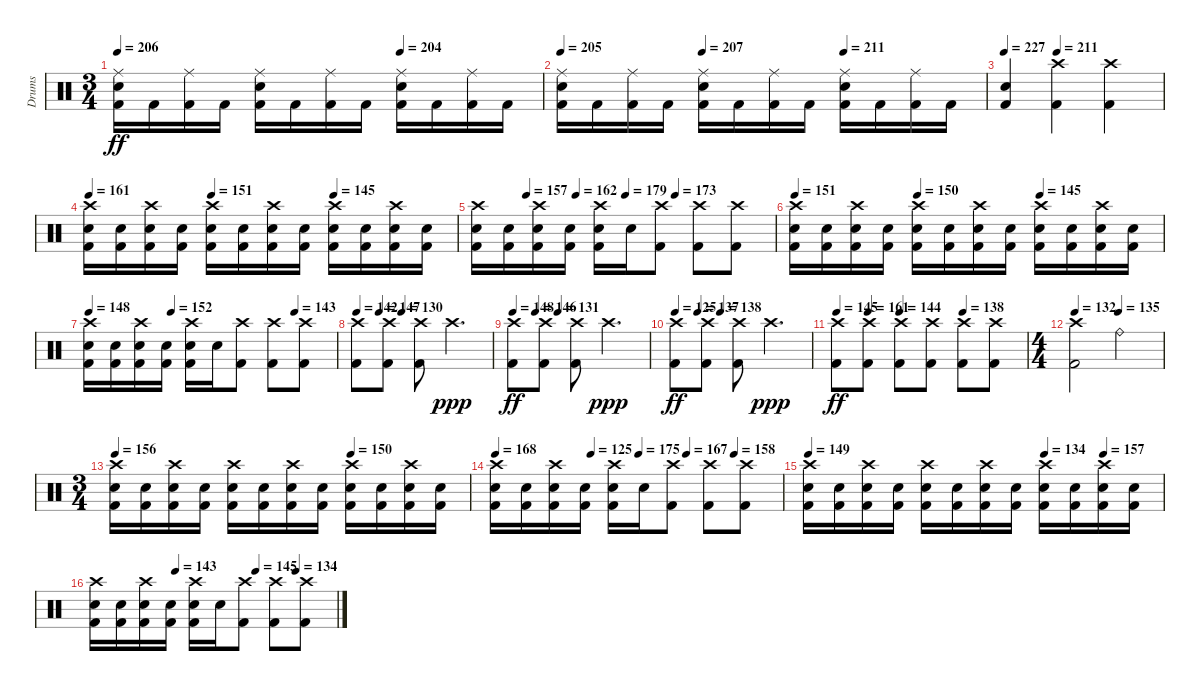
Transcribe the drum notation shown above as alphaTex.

\track ("Drums" "Drums") {instrument percussion}
\staff {score}
\articulation defaults
\ts (3 4)
\tempo 206
\tempo (204 0.6666666666666666)
\clef neutral
\ks c
("Kick (hit) 2" "Snare (hit) 2" "Ride (middle)").16{dy ff} "Kick (hit) 2".16 ("Kick (hit) 2" "Ride (middle)").16 "Kick (hit) 2".16 ("Kick (hit) 2" "Snare (hit) 2" "Ride (middle)").16 "Kick (hit) 2".16 ("Kick (hit) 2" "Ride (middle)").16 "Kick (hit) 2".16 ("Kick (hit) 2" "Snare (hit) 2" "Ride (middle)").16 "Kick (hit) 2".16 ("Kick (hit) 2" "Ride (middle)").16 "Kick (hit) 2".16 |
\tempo 205
\tempo (207 0.3333333333333333)
\tempo (211 0.6666666666666666)
("Kick (hit) 2" "Snare (hit) 2" "Ride (middle)").16 "Kick (hit) 2".16 ("Kick (hit) 2" "Ride (middle)").16 "Kick (hit) 2".16 ("Kick (hit) 2" "Snare (hit) 2" "Ride (middle)").16 "Kick (hit) 2".16 ("Kick (hit) 2" "Ride (middle)").16 "Kick (hit) 2".16 ("Kick (hit) 2" "Snare (hit) 2" "Ride (middle)").16 "Kick (hit) 2".16 ("Kick (hit) 2" "Ride (middle)").16 "Kick (hit) 2".16 |
\tempo 227
\tempo (211 0.3333333333333333)
("Kick (hit) 2" "Snare (hit) 2").4 ("Kick (hit) 2" "Crash high (hit)").4 ("Kick (hit) 2" "Crash high (hit)").4 |
\tempo 161
\tempo (151 0.3333333333333333)
\tempo (145 0.6666666666666666)
("Kick (hit) 2" "Snare (hit) 2" "Crash high (hit)").16 ("Kick (hit) 2" "Snare (hit) 2").16 ("Kick (hit) 2" "Snare (hit) 2" "Crash high (hit)").16 ("Kick (hit) 2" "Snare (hit) 2").16 ("Kick (hit) 2" "Snare (hit) 2" "Crash high (hit)").16 ("Kick (hit) 2" "Snare (hit) 2").16 ("Kick (hit) 2" "Snare (hit) 2" "Crash high (hit)").16 ("Kick (hit) 2" "Snare (hit) 2").16 ("Kick (hit) 2" "Snare (hit) 2" "Crash high (hit)").16 ("Kick (hit) 2" "Snare (hit) 2").16 ("Kick (hit) 2" "Snare (hit) 2" "Crash high (hit)").16 ("Kick (hit) 2" "Snare (hit) 2").16 |
\tempo (157 0.16666666666666666)
\tempo (162 0.3333333333333333)
\tempo (179 0.5)
\tempo (173 0.6666666666666666)
("Kick (hit) 2" "Snare (hit) 2" "Crash high (hit)").16 ("Kick (hit) 2" "Snare (hit) 2").16 ("Kick (hit) 2" "Snare (hit) 2" "Crash high (hit)").16 ("Kick (hit) 2" "Snare (hit) 2").16 ("Kick (hit) 2" "Snare (hit) 2" "Crash high (hit)").16 "Snare (hit) 2".16 ("Kick (hit) 2" "Crash high (hit)").8 ("Kick (hit) 2" "Crash high (hit)").8 ("Kick (hit) 2" "Crash high (hit)").8 |
\tempo 151
\tempo (150 0.3333333333333333)
\tempo (145 0.6666666666666666)
("Kick (hit) 2" "Snare (hit) 2" "Crash high (hit)").16 ("Kick (hit) 2" "Snare (hit) 2").16 ("Kick (hit) 2" "Snare (hit) 2" "Crash high (hit)").16 ("Kick (hit) 2" "Snare (hit) 2").16 ("Kick (hit) 2" "Snare (hit) 2" "Crash high (hit)").16 ("Kick (hit) 2" "Snare (hit) 2").16 ("Kick (hit) 2" "Snare (hit) 2" "Crash high (hit)").16 ("Kick (hit) 2" "Snare (hit) 2").16 ("Kick (hit) 2" "Snare (hit) 2" "Crash high (hit)").16 ("Kick (hit) 2" "Snare (hit) 2").16 ("Kick (hit) 2" "Snare (hit) 2" "Crash high (hit)").16 ("Kick (hit) 2" "Snare (hit) 2").16 |
\tempo 148
\tempo (152 0.3333333333333333)
\tempo (143 0.8333333333333334)
("Kick (hit) 2" "Snare (hit) 2" "Crash high (hit)").16 ("Kick (hit) 2" "Snare (hit) 2").16 ("Kick (hit) 2" "Snare (hit) 2" "Crash high (hit)").16 ("Kick (hit) 2" "Snare (hit) 2").16 ("Kick (hit) 2" "Snare (hit) 2" "Crash high (hit)").16 "Snare (hit) 2".16 ("Kick (hit) 2" "Crash high (hit)").8 ("Kick (hit) 2" "Crash high (hit)").8 ("Kick (hit) 2" "Crash high (hit)").8 |
\tempo 142
\tempo (147 0.16666666666666666)
\tempo (130 0.3333333333333333)
("Kick (hit) 2" "Crash high (hit)").8 ("Kick (hit) 2" "Crash high (hit)").8 ("Kick (hit) 2" "Crash high (hit)").8 "Crash high (hit)".4{d dy ppp} |
\tempo 148
\tempo (146 0.16666666666666666)
\tempo (131 0.3333333333333333)
("Kick (hit) 2" "Crash high (hit)").8{dy ff} ("Kick (hit) 2" "Crash high (hit)").8 ("Kick (hit) 2" "Crash high (hit)").8 "Crash high (hit)".4{d dy ppp} |
\tempo 125
\tempo (137 0.16666666666666666)
\tempo (138 0.3333333333333333)
("Kick (hit) 2" "Crash high (hit)").8{dy ff} ("Kick (hit) 2" "Crash high (hit)").8 ("Kick (hit) 2" "Crash high (hit)").8 "Crash high (hit)".4{d dy ppp} |
\tempo 145
\tempo (161 0.16666666666666666)
\tempo (144 0.3333333333333333)
\tempo (138 0.6666666666666666)
("Kick (hit) 2" "Crash high (hit)").8{dy ff} ("Kick (hit) 2" "Crash high (hit)").8 ("Kick (hit) 2" "Crash high (hit)").8 ("Kick (hit) 2" "Crash high (hit)").8 ("Kick (hit) 2" "Crash high (hit)").8 ("Kick (hit) 2" "Crash high (hit)").8 |
\ts (4 4)
\tempo 132
\tempo (135 0.5)
("Kick (hit) 2" "Crash high (hit)").2 "Ride (bell)".2 |
\ts (3 4)
\tempo 156
\tempo (150 0.6666666666666666)
("Kick (hit) 2" "Snare (hit) 2" "Crash high (hit)").16 ("Kick (hit) 2" "Snare (hit) 2").16 ("Kick (hit) 2" "Snare (hit) 2" "Crash high (hit)").16 ("Kick (hit) 2" "Snare (hit) 2").16 ("Kick (hit) 2" "Snare (hit) 2" "Crash high (hit)").16 ("Kick (hit) 2" "Snare (hit) 2").16 ("Kick (hit) 2" "Snare (hit) 2" "Crash high (hit)").16 ("Kick (hit) 2" "Snare (hit) 2").16 ("Kick (hit) 2" "Snare (hit) 2" "Crash high (hit)").16 ("Kick (hit) 2" "Snare (hit) 2").16 ("Kick (hit) 2" "Snare (hit) 2" "Crash high (hit)").16 ("Kick (hit) 2" "Snare (hit) 2").16 |
\tempo 168
\tempo (125 0.3333333333333333)
\tempo (175 0.5)
\tempo (167 0.6666666666666666)
\tempo (158 0.8333333333333334)
("Kick (hit) 2" "Snare (hit) 2" "Crash high (hit)").16 ("Kick (hit) 2" "Snare (hit) 2").16 ("Kick (hit) 2" "Snare (hit) 2" "Crash high (hit)").16 ("Kick (hit) 2" "Snare (hit) 2").16 ("Kick (hit) 2" "Snare (hit) 2" "Crash high (hit)").16 "Snare (hit) 2".16 ("Kick (hit) 2" "Crash high (hit)").8 ("Kick (hit) 2" "Crash high (hit)").8 ("Kick (hit) 2" "Crash high (hit)").8 |
\tempo 149
\tempo (134 0.6666666666666666)
\tempo (157 0.8333333333333334)
("Kick (hit) 2" "Snare (hit) 2" "Crash high (hit)").16 ("Kick (hit) 2" "Snare (hit) 2").16 ("Kick (hit) 2" "Snare (hit) 2" "Crash high (hit)").16 ("Kick (hit) 2" "Snare (hit) 2").16 ("Kick (hit) 2" "Snare (hit) 2" "Crash high (hit)").16 ("Kick (hit) 2" "Snare (hit) 2").16 ("Kick (hit) 2" "Snare (hit) 2" "Crash high (hit)").16 ("Kick (hit) 2" "Snare (hit) 2").16 ("Kick (hit) 2" "Snare (hit) 2" "Crash high (hit)").16 ("Kick (hit) 2" "Snare (hit) 2").16 ("Kick (hit) 2" "Snare (hit) 2" "Crash high (hit)").16 ("Kick (hit) 2" "Snare (hit) 2").16 |
\tempo (143 0.3333333333333333)
\tempo (145 0.6666666666666666)
\tempo (134 0.8333333333333334)
("Kick (hit) 2" "Snare (hit) 2" "Crash high (hit)").16 ("Kick (hit) 2" "Snare (hit) 2").16 ("Kick (hit) 2" "Snare (hit) 2" "Crash high (hit)").16 ("Kick (hit) 2" "Snare (hit) 2").16 ("Kick (hit) 2" "Snare (hit) 2" "Crash high (hit)").16 "Snare (hit) 2".16 ("Kick (hit) 2" "Crash high (hit)").8 ("Kick (hit) 2" "Crash high (hit)").8 ("Kick (hit) 2" "Crash high (hit)").8
